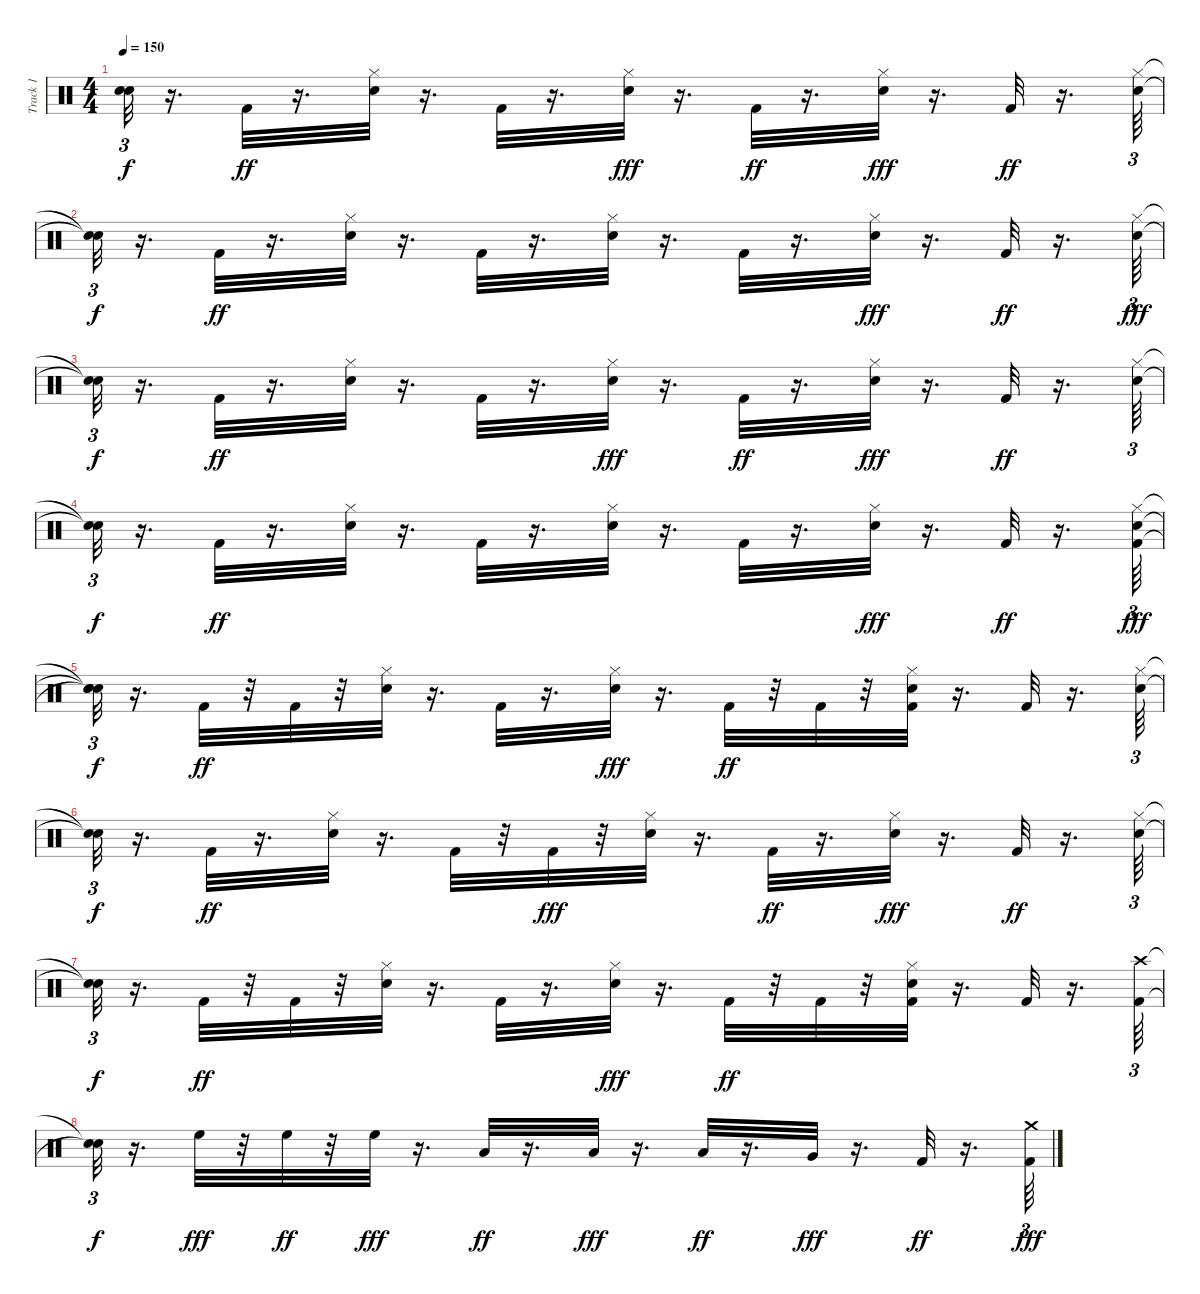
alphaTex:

\track ("Track 1" "Track 1") {instrument percussion}
\staff {score}
\articulation defaults
\ts (4 4)
\tempo 150
\clef neutral
\ks c
("Snare (hit)"{t} "Snare (hit)"{t}).32{tu (3 2) dy f} r.16{d} "Kick (hit) 2".32{dy ff} r.16{d} ("Snare (hit) 2" "Hi-Hat (closed)").32 r.16{d} "Kick (hit) 2".32 r.16{d} ("Hi-Hat (closed)" "Snare (hit) 2").32{dy fff} r.16{d} "Kick (hit) 2".32{dy ff} r.16{d} ("Hi-Hat (closed)" "Snare (hit) 2").32{dy fff} r.16{d} "Kick (hit) 2".32{dy ff} r.16{d} ("Snare (hit) 2" "Hi-Hat (closed)").64{tu (3 2)} |
("Snare (hit)"{t} "Snare (hit)"{t}).32{tu (3 2) dy f} r.16{d} "Kick (hit) 2".32{dy ff} r.16{d} ("Snare (hit) 2" "Hi-Hat (closed)").32 r.16{d} "Kick (hit) 2".32 r.16{d} ("Snare (hit) 2" "Hi-Hat (closed)").32 r.16{d} "Kick (hit) 2".32 r.16{d} ("Hi-Hat (closed)" "Snare (hit) 2").32{dy fff} r.16{d} "Kick (hit) 2".32{dy ff} r.16{d} ("Hi-Hat (closed)" "Snare (hit) 2").64{tu (3 2) dy fff} |
("Snare (hit)"{t} "Snare (hit)"{t}).32{tu (3 2) dy f} r.16{d} "Kick (hit) 2".32{dy ff} r.16{d} ("Snare (hit) 2" "Hi-Hat (closed)").32 r.16{d} "Kick (hit) 2".32 r.16{d} ("Hi-Hat (closed)" "Snare (hit) 2").32{dy fff} r.16{d} "Kick (hit) 2".32{dy ff} r.16{d} ("Hi-Hat (closed)" "Snare (hit) 2").32{dy fff} r.16{d} "Kick (hit) 2".32{dy ff} r.16{d} ("Snare (hit) 2" "Hi-Hat (closed)").64{tu (3 2)} |
("Snare (hit)"{t} "Snare (hit)"{t}).32{tu (3 2) dy f} r.16{d} "Kick (hit) 2".32{dy ff} r.16{d} ("Snare (hit) 2" "Hi-Hat (closed)").32 r.16{d} "Kick (hit) 2".32 r.16{d} ("Snare (hit) 2" "Hi-Hat (closed)").32 r.16{d} "Kick (hit) 2".32 r.16{d} ("Hi-Hat (closed)" "Snare (hit) 2").32{dy fff} r.16{d} "Kick (hit) 2".32{dy ff} r.16{d} ("Kick (hit) 2" "Hi-Hat (closed)" "Snare (hit) 2").64{tu (3 2) dy fff} |
("Snare (hit)"{t} "Snare (hit)"{t} "Snare (hit)"{t}).32{tu (3 2) dy f} r.16{d} "Kick (hit) 2".32{dy ff} r.32 "Kick (hit) 2".32 r.32 ("Snare (hit) 2" "Hi-Hat (closed)").32 r.16{d} "Kick (hit) 2".32 r.16{d} ("Hi-Hat (closed)" "Snare (hit) 2").32{dy fff} r.16{d} "Kick (hit) 2".32{dy ff} r.32 "Kick (hit) 2".32 r.32 ("Hi-Hat (closed)" "Snare (hit) 2" "Kick (hit) 2").32 r.16{d} "Kick (hit) 2".32 r.16{d} ("Snare (hit) 2" "Hi-Hat (closed)").64{tu (3 2)} |
("Snare (hit)"{t} "Snare (hit)"{t}).32{tu (3 2) dy f} r.16{d} "Kick (hit) 2".32{dy ff} r.16{d} ("Snare (hit) 2" "Hi-Hat (closed)").32 r.16{d} "Kick (hit) 2".32 r.32 "Kick (hit) 2".32{dy fff} r.32 ("Hi-Hat (closed)" "Snare (hit) 2").32 r.16{d} "Kick (hit) 2".32{dy ff} r.16{d} ("Hi-Hat (closed)" "Snare (hit) 2").32{dy fff} r.16{d} "Kick (hit) 2".32{dy ff} r.16{d} ("Snare (hit) 2" "Hi-Hat (closed)").64{tu (3 2)} |
("Snare (hit)"{t} "Snare (hit)"{t}).32{tu (3 2) dy f} r.16{d} "Kick (hit) 2".32{dy ff} r.32 "Kick (hit) 2".32 r.32 ("Snare (hit) 2" "Hi-Hat (closed)").32 r.16{d} "Kick (hit) 2".32 r.16{d} ("Hi-Hat (closed)" "Snare (hit) 2").32{dy fff} r.16{d} "Kick (hit) 2".32{dy ff} r.32 "Kick (hit) 2".32 r.32 ("Hi-Hat (closed)" "Snare (hit) 2" "Kick (hit) 2").32 r.16{d} "Kick (hit) 2".32 r.16{d} ("Kick (hit) 2" "Crash high (hit)").64{tu (3 2)} |
("Snare (hit)"{t} "Snare (hit)"{t}).32{tu (3 2) dy f} r.16{d} "High Floor Tom (hit)".32{dy fff} r.32 "High Floor Tom (hit)".32{dy ff} r.32 "High Floor Tom (hit)".32{dy fff} r.16{d} "Low Tom (hit)".32{dy ff} r.16{d} "Low Tom (hit)".32{dy fff} r.16{d} "Low Tom (hit)".32{dy ff} r.16{d} "Very Low Tom (hit)".32{dy fff} r.16{d} "Kick (hit) 2".32{dy ff} r.16{d} ("Kick (hit) 2" "Crash medium (hit)").64{tu (3 2) dy fff}
